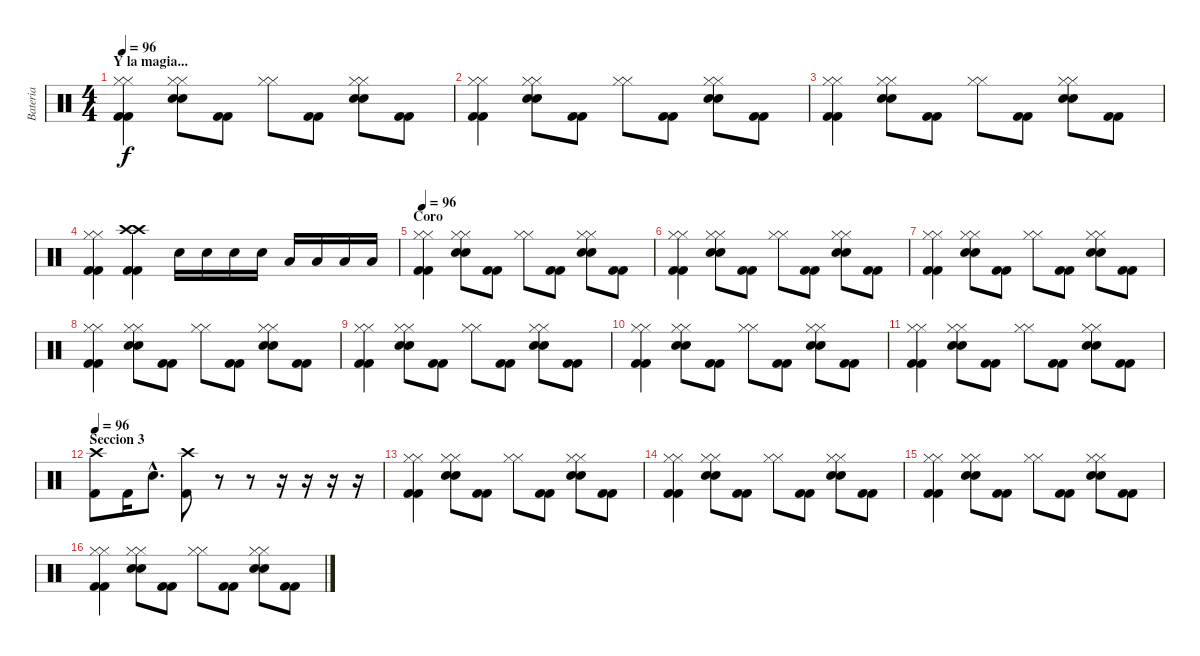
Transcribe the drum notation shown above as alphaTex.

\track ("Bateria" "Bateria") {instrument percussion}
\staff {score}
\articulation defaults
\ts (4 4)
\section ("" "Y la magia...")
\tempo 96
\clef neutral
\ks c
("Hi-Hat (closed)" "Hi-Hat (closed)" "Kick (hit) 2" "Kick (hit) 2").4{dy f} ("Hi-Hat (closed)" "Hi-Hat (closed)" "Snare (hit) 2" "Snare (hit) 2").8 ("Kick (hit) 2" "Kick (hit) 2").8 ("Hi-Hat (closed)" "Hi-Hat (closed)").8 ("Kick (hit) 2" "Kick (hit) 2").8 ("Hi-Hat (closed)" "Hi-Hat (closed)" "Snare (hit) 2" "Snare (hit) 2").8 ("Kick (hit) 2" "Kick (hit) 2").8 |
("Hi-Hat (closed)" "Hi-Hat (closed)" "Kick (hit) 2" "Kick (hit) 2").4 ("Hi-Hat (closed)" "Hi-Hat (closed)" "Snare (hit) 2" "Snare (hit) 2").8 ("Kick (hit) 2" "Kick (hit) 2").8 ("Hi-Hat (closed)" "Hi-Hat (closed)").8 ("Kick (hit) 2" "Kick (hit) 2").8 ("Hi-Hat (closed)" "Hi-Hat (closed)" "Snare (hit) 2" "Snare (hit) 2").8 ("Kick (hit) 2" "Kick (hit) 2").8 |
("Hi-Hat (closed)" "Hi-Hat (closed)" "Kick (hit) 2" "Kick (hit) 2").4 ("Hi-Hat (closed)" "Hi-Hat (closed)" "Snare (hit) 2" "Snare (hit) 2").8 ("Kick (hit) 2" "Kick (hit) 2").8 ("Hi-Hat (closed)" "Hi-Hat (closed)").8 ("Kick (hit) 2" "Kick (hit) 2").8 ("Hi-Hat (closed)" "Hi-Hat (closed)" "Snare (hit) 2" "Snare (hit) 2").8 ("Kick (hit) 2" "Kick (hit) 2").8 |
("Hi-Hat (closed)" "Hi-Hat (closed)" "Kick (hit) 2" "Kick (hit) 2").4 ("Crash high (hit)" "Crash high (hit)" "Kick (hit) 2" "Kick (hit) 2").4 "Snare (hit) 2".16 "Snare (hit) 2".16 "Snare (hit) 2".16 "Snare (hit) 2".16 "Low Tom (hit)".16 "Low Tom (hit)".16 "Low Tom (hit)".16 "Low Tom (hit)".16 |
\section ("" "Coro")
\tempo 96
("Hi-Hat (closed)" "Hi-Hat (closed)" "Kick (hit) 2" "Kick (hit) 2").4 ("Hi-Hat (closed)" "Hi-Hat (closed)" "Snare (hit) 2" "Snare (hit) 2").8 ("Kick (hit) 2" "Kick (hit) 2").8 ("Hi-Hat (closed)" "Hi-Hat (closed)").8 ("Kick (hit) 2" "Kick (hit) 2").8 ("Hi-Hat (closed)" "Hi-Hat (closed)" "Snare (hit) 2" "Snare (hit) 2").8 ("Kick (hit) 2" "Kick (hit) 2").8 |
("Hi-Hat (closed)" "Hi-Hat (closed)" "Kick (hit) 2" "Kick (hit) 2").4 ("Hi-Hat (closed)" "Hi-Hat (closed)" "Snare (hit) 2" "Snare (hit) 2").8 ("Kick (hit) 2" "Kick (hit) 2").8 ("Hi-Hat (closed)" "Hi-Hat (closed)").8 ("Kick (hit) 2" "Kick (hit) 2").8 ("Hi-Hat (closed)" "Hi-Hat (closed)" "Snare (hit) 2" "Snare (hit) 2").8 ("Kick (hit) 2" "Kick (hit) 2").8 |
("Hi-Hat (closed)" "Hi-Hat (closed)" "Kick (hit) 2" "Kick (hit) 2").4 ("Hi-Hat (closed)" "Hi-Hat (closed)" "Snare (hit) 2" "Snare (hit) 2").8 ("Kick (hit) 2" "Kick (hit) 2").8 ("Hi-Hat (closed)" "Hi-Hat (closed)").8 ("Kick (hit) 2" "Kick (hit) 2").8 ("Hi-Hat (closed)" "Hi-Hat (closed)" "Snare (hit) 2" "Snare (hit) 2").8 ("Kick (hit) 2" "Kick (hit) 2").8 |
("Hi-Hat (closed)" "Hi-Hat (closed)" "Kick (hit) 2" "Kick (hit) 2").4 ("Hi-Hat (closed)" "Hi-Hat (closed)" "Snare (hit) 2" "Snare (hit) 2").8 ("Kick (hit) 2" "Kick (hit) 2").8 ("Hi-Hat (closed)" "Hi-Hat (closed)").8 ("Kick (hit) 2" "Kick (hit) 2").8 ("Hi-Hat (closed)" "Hi-Hat (closed)" "Snare (hit) 2" "Snare (hit) 2").8 ("Kick (hit) 2" "Kick (hit) 2").8 |
("Hi-Hat (closed)" "Hi-Hat (closed)" "Kick (hit) 2" "Kick (hit) 2").4 ("Hi-Hat (closed)" "Hi-Hat (closed)" "Snare (hit) 2" "Snare (hit) 2").8 ("Kick (hit) 2" "Kick (hit) 2").8 ("Hi-Hat (closed)" "Hi-Hat (closed)").8 ("Kick (hit) 2" "Kick (hit) 2").8 ("Hi-Hat (closed)" "Hi-Hat (closed)" "Snare (hit) 2" "Snare (hit) 2").8 ("Kick (hit) 2" "Kick (hit) 2").8 |
("Hi-Hat (closed)" "Hi-Hat (closed)" "Kick (hit) 2" "Kick (hit) 2").4 ("Hi-Hat (closed)" "Hi-Hat (closed)" "Snare (hit) 2" "Snare (hit) 2").8 ("Kick (hit) 2" "Kick (hit) 2").8 ("Hi-Hat (closed)" "Hi-Hat (closed)").8 ("Kick (hit) 2" "Kick (hit) 2").8 ("Hi-Hat (closed)" "Hi-Hat (closed)" "Snare (hit) 2" "Snare (hit) 2").8 ("Kick (hit) 2" "Kick (hit) 2").8 |
("Hi-Hat (closed)" "Hi-Hat (closed)" "Kick (hit) 2" "Kick (hit) 2").4 ("Hi-Hat (closed)" "Hi-Hat (closed)" "Snare (hit) 2" "Snare (hit) 2").8 ("Kick (hit) 2" "Kick (hit) 2").8 ("Hi-Hat (closed)" "Hi-Hat (closed)").8 ("Kick (hit) 2" "Kick (hit) 2").8 ("Hi-Hat (closed)" "Hi-Hat (closed)" "Snare (hit) 2" "Snare (hit) 2").8 ("Kick (hit) 2" "Kick (hit) 2").8 |
\section ("" "Seccion 3")
\tempo 96
("Crash high (hit)" "Kick (hit) 2").8 "Kick (hit) 2".16 "Snare (hit) 2"{hac}.8{d} ("Crash high (hit)" "Kick (hit) 2").8 r.8 r.8 r.16 r.16 r.16 r.16 |
("Hi-Hat (closed)" "Hi-Hat (closed)" "Kick (hit) 2" "Kick (hit) 2").4 ("Hi-Hat (closed)" "Hi-Hat (closed)" "Snare (hit) 2" "Snare (hit) 2").8 ("Kick (hit) 2" "Kick (hit) 2").8 ("Hi-Hat (closed)" "Hi-Hat (closed)").8 ("Kick (hit) 2" "Kick (hit) 2").8 ("Hi-Hat (closed)" "Hi-Hat (closed)" "Snare (hit) 2" "Snare (hit) 2").8 ("Kick (hit) 2" "Kick (hit) 2").8 |
("Hi-Hat (closed)" "Hi-Hat (closed)" "Kick (hit) 2" "Kick (hit) 2").4 ("Hi-Hat (closed)" "Hi-Hat (closed)" "Snare (hit) 2" "Snare (hit) 2").8 ("Kick (hit) 2" "Kick (hit) 2").8 ("Hi-Hat (closed)" "Hi-Hat (closed)").8 ("Kick (hit) 2" "Kick (hit) 2").8 ("Hi-Hat (closed)" "Hi-Hat (closed)" "Snare (hit) 2" "Snare (hit) 2").8 ("Kick (hit) 2" "Kick (hit) 2").8 |
("Hi-Hat (closed)" "Hi-Hat (closed)" "Kick (hit) 2" "Kick (hit) 2").4 ("Hi-Hat (closed)" "Hi-Hat (closed)" "Snare (hit) 2" "Snare (hit) 2").8 ("Kick (hit) 2" "Kick (hit) 2").8 ("Hi-Hat (closed)" "Hi-Hat (closed)").8 ("Kick (hit) 2" "Kick (hit) 2").8 ("Hi-Hat (closed)" "Hi-Hat (closed)" "Snare (hit) 2" "Snare (hit) 2").8 ("Kick (hit) 2" "Kick (hit) 2").8 |
("Hi-Hat (closed)" "Hi-Hat (closed)" "Kick (hit) 2" "Kick (hit) 2").4 ("Hi-Hat (closed)" "Hi-Hat (closed)" "Snare (hit) 2" "Snare (hit) 2").8 ("Kick (hit) 2" "Kick (hit) 2").8 ("Hi-Hat (closed)" "Hi-Hat (closed)").8 ("Kick (hit) 2" "Kick (hit) 2").8 ("Hi-Hat (closed)" "Hi-Hat (closed)" "Snare (hit) 2" "Snare (hit) 2").8 ("Kick (hit) 2" "Kick (hit) 2").8
